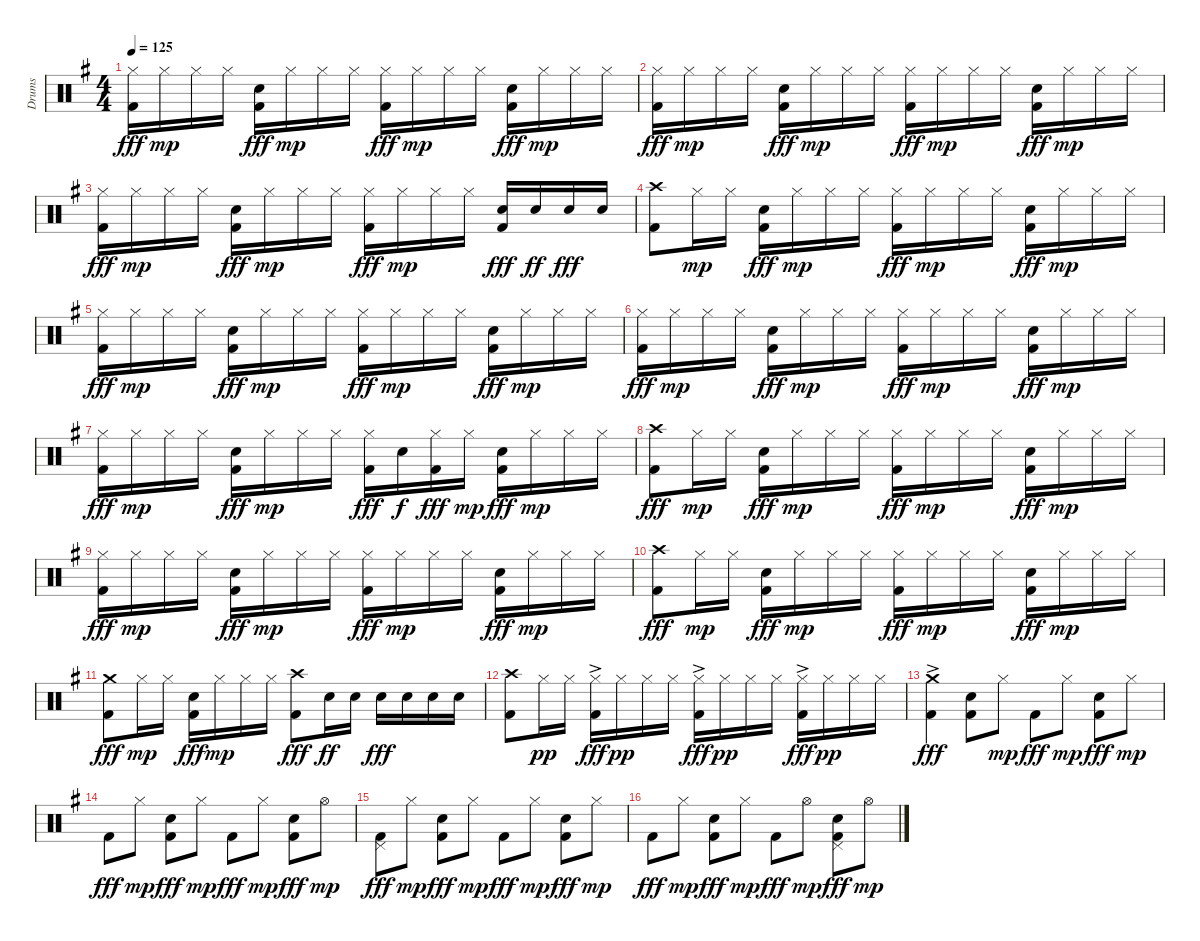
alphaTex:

\track ("Drums" "Drums") {instrument percussion}
\staff {score}
\articulation defaults
\ts (4 4)
\tempo 125
\clef neutral
\ks eminor
("Hi-Hat (closed)" "Kick (hit) 2").16{dy fff} "Hi-Hat (closed)".16{dy mp} "Hi-Hat (closed)".16 "Hi-Hat (closed)".16 ("Electric Snare (hit)" "Kick (hit) 2").16{dy fff} "Hi-Hat (closed)".16{dy mp} "Hi-Hat (closed)".16 "Hi-Hat (closed)".16 ("Hi-Hat (closed)" "Kick (hit) 2").16{dy fff} "Hi-Hat (closed)".16{dy mp} "Hi-Hat (closed)".16 "Hi-Hat (closed)".16 ("Electric Snare (hit)" "Kick (hit) 2").16{dy fff} "Hi-Hat (closed)".16{dy mp} "Hi-Hat (closed)".16 "Hi-Hat (closed)".16 |
("Hi-Hat (closed)" "Kick (hit) 2").16{dy fff} "Hi-Hat (closed)".16{dy mp} "Hi-Hat (closed)".16 "Hi-Hat (closed)".16 ("Electric Snare (hit)" "Kick (hit) 2").16{dy fff} "Hi-Hat (closed)".16{dy mp} "Hi-Hat (closed)".16 "Hi-Hat (closed)".16 ("Hi-Hat (closed)" "Kick (hit) 2").16{dy fff} "Hi-Hat (closed)".16{dy mp} "Hi-Hat (closed)".16 "Hi-Hat (closed)".16 ("Electric Snare (hit)" "Kick (hit) 2").16{dy fff} "Hi-Hat (closed)".16{dy mp} "Hi-Hat (closed)".16 "Hi-Hat (closed)".16 |
("Hi-Hat (closed)" "Kick (hit) 2").16{dy fff} "Hi-Hat (closed)".16{dy mp} "Hi-Hat (closed)".16 "Hi-Hat (closed)".16 ("Electric Snare (hit)" "Kick (hit) 2").16{dy fff} "Hi-Hat (closed)".16{dy mp} "Hi-Hat (closed)".16 "Hi-Hat (closed)".16 ("Hi-Hat (closed)" "Kick (hit) 2").16{dy fff} "Hi-Hat (closed)".16{dy mp} "Hi-Hat (closed)".16 "Hi-Hat (closed)".16 ("Electric Snare (hit)" "Kick (hit) 2").16{dy fff} "Electric Snare (hit)".16{dy ff} "Electric Snare (hit)".16{dy fff} "Electric Snare (hit)".16 |
("Crash high (hit)" "Kick (hit) 2").8 "Hi-Hat (closed)".16{dy mp} "Hi-Hat (closed)".16 ("Electric Snare (hit)" "Kick (hit) 2").16{dy fff} "Hi-Hat (closed)".16{dy mp} "Hi-Hat (closed)".16 "Hi-Hat (closed)".16 ("Hi-Hat (closed)" "Kick (hit) 2").16{dy fff} "Hi-Hat (closed)".16{dy mp} "Hi-Hat (closed)".16 "Hi-Hat (closed)".16 ("Electric Snare (hit)" "Kick (hit) 2").16{dy fff} "Hi-Hat (closed)".16{dy mp} "Hi-Hat (closed)".16 "Hi-Hat (closed)".16 |
("Hi-Hat (closed)" "Kick (hit) 2").16{dy fff} "Hi-Hat (closed)".16{dy mp} "Hi-Hat (closed)".16 "Hi-Hat (closed)".16 ("Electric Snare (hit)" "Kick (hit) 2").16{dy fff} "Hi-Hat (closed)".16{dy mp} "Hi-Hat (closed)".16 "Hi-Hat (closed)".16 ("Hi-Hat (closed)" "Kick (hit) 2").16{dy fff} "Hi-Hat (closed)".16{dy mp} "Hi-Hat (closed)".16 "Hi-Hat (closed)".16 ("Electric Snare (hit)" "Kick (hit) 2").16{dy fff} "Hi-Hat (closed)".16{dy mp} "Hi-Hat (closed)".16 "Hi-Hat (closed)".16 |
("Hi-Hat (closed)" "Kick (hit) 2").16{dy fff} "Hi-Hat (closed)".16{dy mp} "Hi-Hat (closed)".16 "Hi-Hat (closed)".16 ("Electric Snare (hit)" "Kick (hit) 2").16{dy fff} "Hi-Hat (closed)".16{dy mp} "Hi-Hat (closed)".16 "Hi-Hat (closed)".16 ("Hi-Hat (closed)" "Kick (hit) 2").16{dy fff} "Hi-Hat (closed)".16{dy mp} "Hi-Hat (closed)".16 "Hi-Hat (closed)".16 ("Electric Snare (hit)" "Kick (hit) 2").16{dy fff} "Hi-Hat (closed)".16{dy mp} "Hi-Hat (closed)".16 "Hi-Hat (closed)".16 |
("Hi-Hat (closed)" "Kick (hit) 2").16{dy fff} "Hi-Hat (closed)".16{dy mp} "Hi-Hat (closed)".16 "Hi-Hat (closed)".16 ("Electric Snare (hit)" "Kick (hit) 2").16{dy fff} "Hi-Hat (closed)".16{dy mp} "Hi-Hat (closed)".16 "Hi-Hat (closed)".16 ("Hi-Hat (closed)" "Kick (hit) 2").16{dy fff} "Electric Snare (hit)".16{dy f} ("Hi-Hat (closed)" "Kick (hit) 2").16{dy fff} "Hi-Hat (closed)".16{dy mp} ("Electric Snare (hit)" "Kick (hit) 2").16{dy fff} "Hi-Hat (closed)".16{dy mp} "Hi-Hat (closed)".16 "Hi-Hat (closed)".16 |
("Crash high (hit)" "Kick (hit) 2").8{dy fff} "Hi-Hat (closed)".16{dy mp} "Hi-Hat (closed)".16 ("Electric Snare (hit)" "Kick (hit) 2").16{dy fff} "Hi-Hat (closed)".16{dy mp} "Hi-Hat (closed)".16 "Hi-Hat (closed)".16 ("Hi-Hat (closed)" "Kick (hit) 2").16{dy fff} "Hi-Hat (closed)".16{dy mp} "Hi-Hat (closed)".16 "Hi-Hat (closed)".16 ("Electric Snare (hit)" "Kick (hit) 2").16{dy fff} "Hi-Hat (closed)".16{dy mp} "Hi-Hat (closed)".16 "Hi-Hat (closed)".16 |
("Hi-Hat (closed)" "Kick (hit) 2").16{dy fff} "Hi-Hat (closed)".16{dy mp} "Hi-Hat (closed)".16 "Hi-Hat (closed)".16 ("Electric Snare (hit)" "Kick (hit) 2").16{dy fff} "Hi-Hat (closed)".16{dy mp} "Hi-Hat (closed)".16 "Hi-Hat (closed)".16 ("Hi-Hat (closed)" "Kick (hit) 2").16{dy fff} "Hi-Hat (closed)".16{dy mp} "Hi-Hat (closed)".16 "Hi-Hat (closed)".16 ("Electric Snare (hit)" "Kick (hit) 2").16{dy fff} "Hi-Hat (closed)".16{dy mp} "Hi-Hat (closed)".16 "Hi-Hat (closed)".16 |
("Crash high (hit)" "Kick (hit) 2").8{dy fff} "Hi-Hat (closed)".16{dy mp} "Hi-Hat (closed)".16 ("Electric Snare (hit)" "Kick (hit) 2").16{dy fff} "Hi-Hat (closed)".16{dy mp} "Hi-Hat (closed)".16 "Hi-Hat (closed)".16 ("Hi-Hat (closed)" "Kick (hit) 2").16{dy fff} "Hi-Hat (closed)".16{dy mp} "Hi-Hat (closed)".16 "Hi-Hat (closed)".16 ("Electric Snare (hit)" "Kick (hit) 2").16{dy fff} "Hi-Hat (closed)".16{dy mp} "Hi-Hat (closed)".16 "Hi-Hat (closed)".16 |
("Crash medium (hit)" "Kick (hit) 2").8{dy fff} "Hi-Hat (closed)".16{dy mp} "Hi-Hat (closed)".16 ("Electric Snare (hit)" "Kick (hit) 2").16{dy fff} "Hi-Hat (closed)".16{dy mp} "Hi-Hat (closed)".16 "Hi-Hat (closed)".16 ("Crash high (hit)" "Kick (hit) 2").8{dy fff} "Electric Snare (hit)".16{dy ff} "Electric Snare (hit)".16 "Electric Snare (hit)".16{dy fff} "Electric Snare (hit)".16 "Electric Snare (hit)".16 "Electric Snare (hit)".16 |
("Crash high (hit)" "Kick (hit) 2").8 "Hi-Hat (closed)".16{dy pp} "Hi-Hat (closed)".16 ("Hi-Hat (closed)"{ac} "Kick (hit) 2").16{dy fff} "Hi-Hat (closed)".16{dy pp} "Hi-Hat (closed)".16 "Hi-Hat (closed)".16 ("Hi-Hat (closed)"{ac} "Kick (hit) 2").16{dy fff} "Hi-Hat (closed)".16{dy pp} "Hi-Hat (closed)".16 "Hi-Hat (closed)".16 ("Hi-Hat (closed)"{ac} "Kick (hit) 2").16{dy fff} "Hi-Hat (closed)".16{dy pp} "Hi-Hat (closed)".16 "Hi-Hat (closed)".16 |
("Crash medium (hit)"{ac} "Kick (hit) 2").4{dy fff} ("Electric Snare (hit)" "Kick (hit) 2").8 "Hi-Hat (closed)".8{dy mp} "Kick (hit) 2".8{dy fff} "Hi-Hat (closed)".8{dy mp} ("Electric Snare (hit)" "Kick (hit) 2").8{dy fff} "Hi-Hat (closed)".8{dy mp} |
"Kick (hit) 2".8{dy fff} "Hi-Hat (closed)".8{dy mp} ("Electric Snare (hit)" "Kick (hit) 2").8{dy fff} "Hi-Hat (closed)".8{dy mp} "Kick (hit) 2".8{dy fff} "Hi-Hat (closed)".8{dy mp} ("Electric Snare (hit)" "Kick (hit) 2").8{dy fff} "Hi-Hat (open)".8{dy mp} |
("Pedal Hi-Hat (hit)" "Kick (hit) 2").8{dy fff} "Hi-Hat (closed)".8{dy mp} ("Electric Snare (hit)" "Kick (hit) 2").8{dy fff} "Hi-Hat (closed)".8{dy mp} "Kick (hit) 2".8{dy fff} "Hi-Hat (closed)".8{dy mp} ("Electric Snare (hit)" "Kick (hit) 2").8{dy fff} "Hi-Hat (closed)".8{dy mp} |
"Kick (hit) 2".8{dy fff} "Hi-Hat (closed)".8{dy mp} ("Electric Snare (hit)" "Kick (hit) 2").8{dy fff} "Hi-Hat (closed)".8{dy mp} "Kick (hit) 2".8{dy fff} "Hi-Hat (open)".8{dy mp} ("Pedal Hi-Hat (hit)" "Electric Snare (hit)" "Kick (hit) 2").8{dy fff} "Hi-Hat (open)".8{dy mp}
